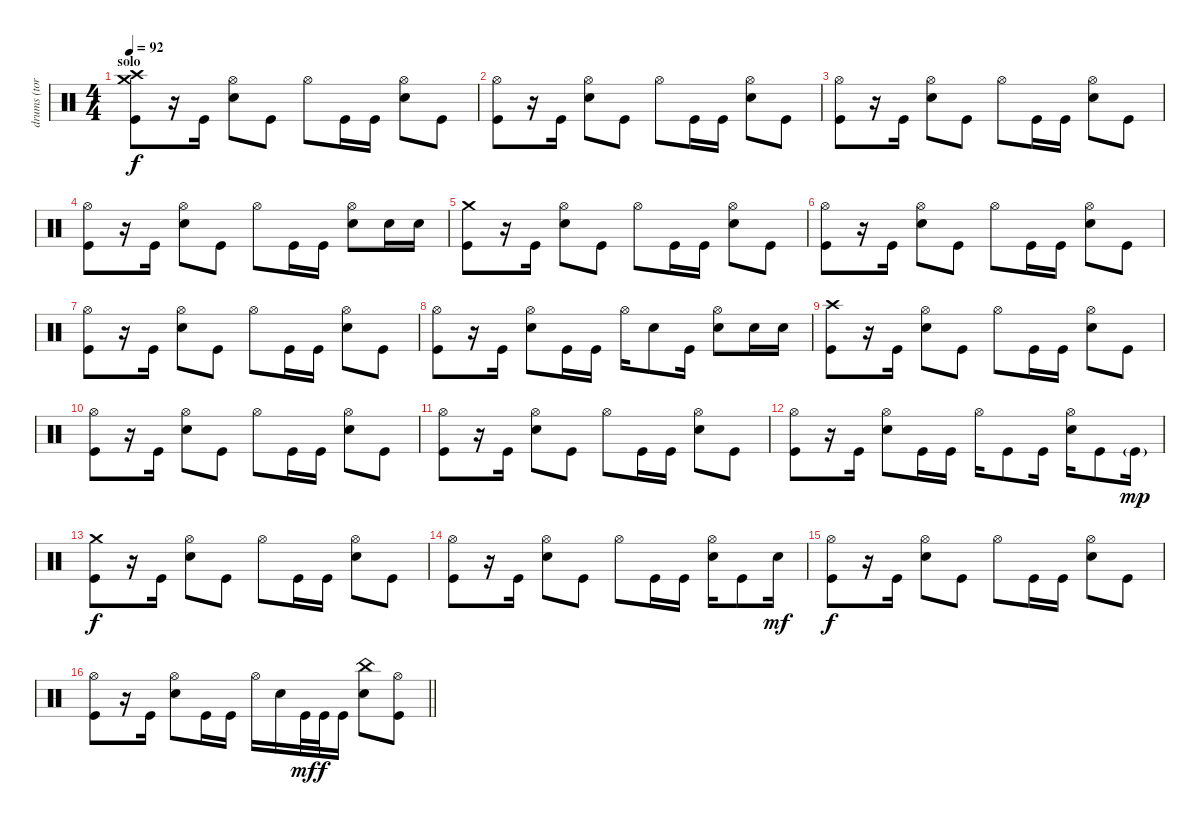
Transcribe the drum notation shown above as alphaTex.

\track ("drums (tora)" "drums (tor") {instrument percussion}
\staff {score}
\articulation defaults
\ts (4 4)
\section ("" "solo")
\tempo 92
\clef neutral
\ks c
("Crash high (hit)" "Crash medium (hit)" "Kick (hit)").8{dy f} r.16 "Kick (hit)".16 ("Hi-Hat (open)" "Snare (hit) 2").8 "Kick (hit)".8 "Hi-Hat (open)".8 "Kick (hit)".16 "Kick (hit)".16 ("Hi-Hat (open)" "Snare (hit) 2").8 "Kick (hit)".8 |
("Hi-Hat (open)" "Kick (hit)").8 r.16 "Kick (hit)".16 ("Hi-Hat (open)" "Snare (hit) 2").8 "Kick (hit)".8 "Hi-Hat (open)".8 "Kick (hit)".16 "Kick (hit)".16 ("Hi-Hat (open)" "Snare (hit) 2").8 "Kick (hit)".8 |
("Hi-Hat (open)" "Kick (hit)").8 r.16 "Kick (hit)".16 ("Hi-Hat (open)" "Snare (hit) 2").8 "Kick (hit)".8 "Hi-Hat (open)".8 "Kick (hit)".16 "Kick (hit)".16 ("Hi-Hat (open)" "Snare (hit) 2").8 "Kick (hit)".8 |
("Hi-Hat (open)" "Kick (hit)").8 r.16 "Kick (hit)".16 ("Hi-Hat (open)" "Snare (hit) 2").8 "Kick (hit)".8 "Hi-Hat (open)".8 "Kick (hit)".16 "Kick (hit)".16 ("Hi-Hat (open)" "Snare (hit) 2").8 "Snare (hit) 2".16 "Snare (hit) 2".16 |
("Crash medium (hit)" "Kick (hit)").8 r.16 "Kick (hit)".16 ("Hi-Hat (open)" "Snare (hit) 2").8 "Kick (hit)".8 "Hi-Hat (open)".8 "Kick (hit)".16 "Kick (hit)".16 ("Hi-Hat (open)" "Snare (hit) 2").8 "Kick (hit)".8 |
("Hi-Hat (open)" "Kick (hit)").8 r.16 "Kick (hit)".16 ("Hi-Hat (open)" "Snare (hit) 2").8 "Kick (hit)".8 "Hi-Hat (open)".8 "Kick (hit)".16 "Kick (hit)".16 ("Hi-Hat (open)" "Snare (hit) 2").8 "Kick (hit)".8 |
("Hi-Hat (open)" "Kick (hit)").8 r.16 "Kick (hit)".16 ("Hi-Hat (open)" "Snare (hit) 2").8 "Kick (hit)".8 "Hi-Hat (open)".8 "Kick (hit)".16 "Kick (hit)".16 ("Hi-Hat (open)" "Snare (hit) 2").8 "Kick (hit)".8 |
("Hi-Hat (open)" "Kick (hit)").8 r.16 "Kick (hit)".16 ("Hi-Hat (open)" "Snare (hit) 2").8 "Kick (hit)".16 "Kick (hit)".16 "Hi-Hat (open)".16 "Snare (hit) 2".8 "Kick (hit)".16 ("Hi-Hat (open)" "Snare (hit) 2").8 "Snare (hit) 2".16 "Snare (hit) 2".16 |
("Crash high (hit)" "Kick (hit)").8 r.16 "Kick (hit)".16 ("Hi-Hat (open)" "Snare (hit) 2").8 "Kick (hit)".8 "Hi-Hat (open)".8 "Kick (hit)".16 "Kick (hit)".16 ("Hi-Hat (open)" "Snare (hit) 2").8 "Kick (hit)".8 |
("Hi-Hat (open)" "Kick (hit)").8 r.16 "Kick (hit)".16 ("Hi-Hat (open)" "Snare (hit) 2").8 "Kick (hit)".8 "Hi-Hat (open)".8 "Kick (hit)".16 "Kick (hit)".16 ("Hi-Hat (open)" "Snare (hit) 2").8 "Kick (hit)".8 |
("Hi-Hat (open)" "Kick (hit)").8 r.16 "Kick (hit)".16 ("Hi-Hat (open)" "Snare (hit) 2").8 "Kick (hit)".8 "Hi-Hat (open)".8 "Kick (hit)".16 "Kick (hit)".16 ("Hi-Hat (open)" "Snare (hit) 2").8 "Kick (hit)".8 |
("Hi-Hat (open)" "Kick (hit)").8 r.16 "Kick (hit)".16 ("Hi-Hat (open)" "Snare (hit) 2").8 "Kick (hit)".16 "Kick (hit)".16 "Hi-Hat (open)".16 "Kick (hit)".8 "Kick (hit)".16 ("Hi-Hat (open)" "Snare (hit) 2").16 "Kick (hit)".8 "Kick (hit)"{g}.16{dy mp} |
("Crash medium (hit)" "Kick (hit)").8{dy f} r.16 "Kick (hit)".16 ("Hi-Hat (open)" "Snare (hit) 2").8 "Kick (hit)".8 "Hi-Hat (open)".8 "Kick (hit)".16 "Kick (hit)".16 ("Hi-Hat (open)" "Snare (hit) 2").8 "Kick (hit)".8 |
("Hi-Hat (open)" "Kick (hit)").8 r.16 "Kick (hit)".16 ("Hi-Hat (open)" "Snare (hit) 2").8 "Kick (hit)".8 "Hi-Hat (open)".8 "Kick (hit)".16 "Kick (hit)".16 ("Hi-Hat (open)" "Snare (hit) 2").16 "Kick (hit)".8 "Snare (hit) 2".16{dy mf} |
("Hi-Hat (open)" "Kick (hit)").8{dy f} r.16 "Kick (hit)".16 ("Hi-Hat (open)" "Snare (hit) 2").8 "Kick (hit)".8 "Hi-Hat (open)".8 "Kick (hit)".16 "Kick (hit)".16 ("Hi-Hat (open)" "Snare (hit) 2").8 "Kick (hit)".8 |
\barLineRight lightlight
("Hi-Hat (open)" "Kick (hit)").8 r.16 "Kick (hit)".16 ("Hi-Hat (open)" "Snare (hit) 2").8 "Kick (hit)".16 "Kick (hit)".16 "Hi-Hat (open)".16 "Snare (hit) 2".16 "Kick (hit)".32{dy mf} "Kick (hit)".32{dy f} "Kick (hit)".16 ("China (hit)" "Snare (hit) 2").8 ("Hi-Hat (open)" "Kick (hit)").8
